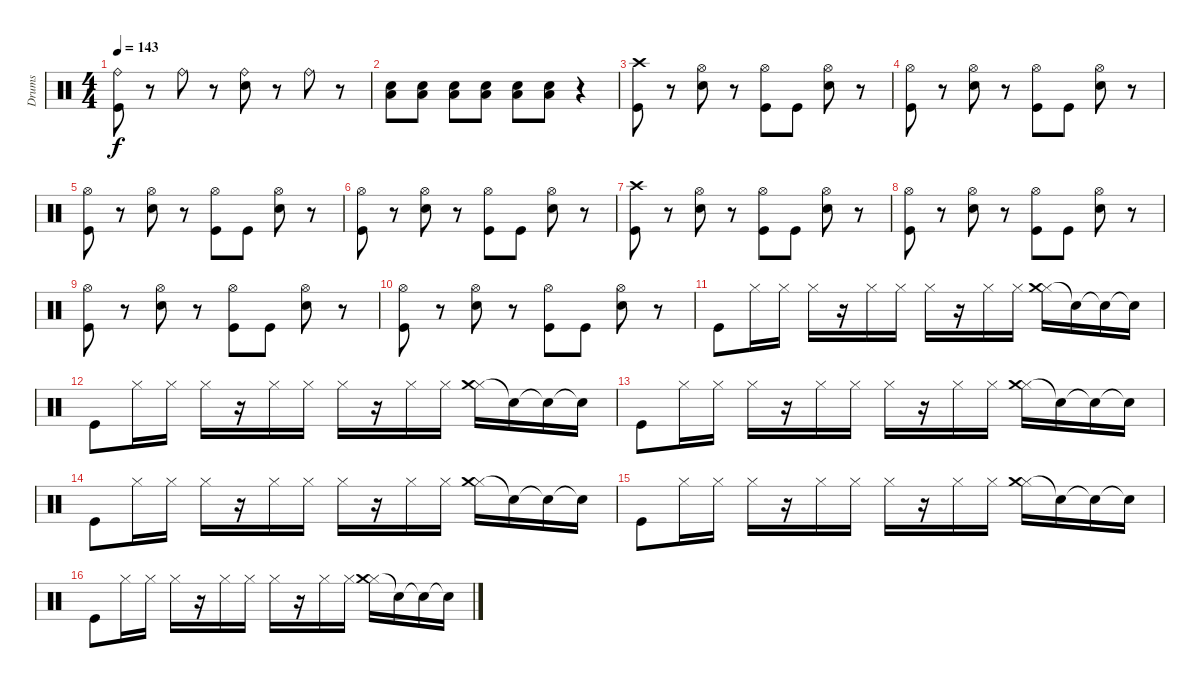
\track ("Drums" "Drums") {instrument percussion}
\staff {score}
\articulation defaults
\ts (4 4)
\tempo 143
\clef neutral
\ks c
("Ride (bell)" "Kick (hit)").8{dy f} r.8 "Ride (bell)".8 r.8 ("Ride (bell)" "Electric Snare (hit)").8 r.8 "Ride (bell)".8 r.8 |
("Electric Snare (hit)" "Low Floor Tom (hit)").8 ("Electric Snare (hit)" "Low Floor Tom (hit)").8 ("Electric Snare (hit)" "Low Floor Tom (hit)").8 ("Electric Snare (hit)" "Low Floor Tom (hit)").8 ("Electric Snare (hit)" "Low Floor Tom (hit)").8 ("Electric Snare (hit)" "Low Floor Tom (hit)").8 r.4 |
("Crash high (hit)" "Kick (hit)").8 r.8 ("Hi-Hat (open)" "Electric Snare (hit)").8 r.8 ("Hi-Hat (open)" "Kick (hit)").8 "Kick (hit)".8 ("Hi-Hat (open)" "Electric Snare (hit)").8 r.8 |
("Hi-Hat (open)" "Kick (hit)").8 r.8 ("Hi-Hat (open)" "Electric Snare (hit)").8 r.8 ("Hi-Hat (open)" "Kick (hit)").8 "Kick (hit)".8 ("Hi-Hat (open)" "Electric Snare (hit)").8 r.8 |
("Hi-Hat (open)" "Kick (hit)").8 r.8 ("Hi-Hat (open)" "Electric Snare (hit)").8 r.8 ("Hi-Hat (open)" "Kick (hit)").8 "Kick (hit)".8 ("Hi-Hat (open)" "Electric Snare (hit)").8 r.8 |
("Hi-Hat (open)" "Kick (hit)").8 r.8 ("Hi-Hat (open)" "Electric Snare (hit)").8 r.8 ("Hi-Hat (open)" "Kick (hit)").8 "Kick (hit)".8 ("Hi-Hat (open)" "Electric Snare (hit)").8 r.8 |
("Crash high (hit)" "Kick (hit)").8 r.8 ("Hi-Hat (open)" "Electric Snare (hit)").8 r.8 ("Hi-Hat (open)" "Kick (hit)").8 "Kick (hit)".8 ("Hi-Hat (open)" "Electric Snare (hit)").8 r.8 |
("Hi-Hat (open)" "Kick (hit)").8 r.8 ("Hi-Hat (open)" "Electric Snare (hit)").8 r.8 ("Hi-Hat (open)" "Kick (hit)").8 "Kick (hit)".8 ("Hi-Hat (open)" "Electric Snare (hit)").8 r.8 |
("Hi-Hat (open)" "Kick (hit)").8 r.8 ("Hi-Hat (open)" "Electric Snare (hit)").8 r.8 ("Hi-Hat (open)" "Kick (hit)").8 "Kick (hit)".8 ("Hi-Hat (open)" "Electric Snare (hit)").8 r.8 |
("Hi-Hat (open)" "Kick (hit)").8 r.8 ("Hi-Hat (open)" "Electric Snare (hit)").8 r.8 ("Hi-Hat (open)" "Kick (hit)").8 "Kick (hit)".8 ("Hi-Hat (open)" "Electric Snare (hit)").8 r.8 |
"Kick (hit)".8 "Hi-Hat (closed)".16 "Hi-Hat (closed)".16 "Hi-Hat (closed)".16 r.16 "Hi-Hat (closed)".16 "Hi-Hat (closed)".16 "Hi-Hat (closed)".16 r.16 "Hi-Hat (closed)".16 "Hi-Hat (closed)".16 ("Hi-Hat (closed)" "Crash medium (hit)").16 "Snare (hit)"{t}.16 "Snare (hit)"{t}.16 "Snare (hit)"{t}.16 |
"Kick (hit)".8 "Hi-Hat (closed)".16 "Hi-Hat (closed)".16 "Hi-Hat (closed)".16 r.16 "Hi-Hat (closed)".16 "Hi-Hat (closed)".16 "Hi-Hat (closed)".16 r.16 "Hi-Hat (closed)".16 "Hi-Hat (closed)".16 ("Hi-Hat (closed)" "Crash medium (hit)").16 "Snare (hit)"{t}.16 "Snare (hit)"{t}.16 "Snare (hit)"{t}.16 |
"Kick (hit)".8 "Hi-Hat (closed)".16 "Hi-Hat (closed)".16 "Hi-Hat (closed)".16 r.16 "Hi-Hat (closed)".16 "Hi-Hat (closed)".16 "Hi-Hat (closed)".16 r.16 "Hi-Hat (closed)".16 "Hi-Hat (closed)".16 ("Hi-Hat (closed)" "Crash medium (hit)").16 "Snare (hit)"{t}.16 "Snare (hit)"{t}.16 "Snare (hit)"{t}.16 |
"Kick (hit)".8 "Hi-Hat (closed)".16 "Hi-Hat (closed)".16 "Hi-Hat (closed)".16 r.16 "Hi-Hat (closed)".16 "Hi-Hat (closed)".16 "Hi-Hat (closed)".16 r.16 "Hi-Hat (closed)".16 "Hi-Hat (closed)".16 ("Hi-Hat (closed)" "Crash medium (hit)").16 "Snare (hit)"{t}.16 "Snare (hit)"{t}.16 "Snare (hit)"{t}.16 |
"Kick (hit)".8 "Hi-Hat (closed)".16 "Hi-Hat (closed)".16 "Hi-Hat (closed)".16 r.16 "Hi-Hat (closed)".16 "Hi-Hat (closed)".16 "Hi-Hat (closed)".16 r.16 "Hi-Hat (closed)".16 "Hi-Hat (closed)".16 ("Hi-Hat (closed)" "Crash medium (hit)").16 "Snare (hit)"{t}.16 "Snare (hit)"{t}.16 "Snare (hit)"{t}.16 |
"Kick (hit)".8 "Hi-Hat (closed)".16 "Hi-Hat (closed)".16 "Hi-Hat (closed)".16 r.16 "Hi-Hat (closed)".16 "Hi-Hat (closed)".16 "Hi-Hat (closed)".16 r.16 "Hi-Hat (closed)".16 "Hi-Hat (closed)".16 ("Hi-Hat (closed)" "Crash medium (hit)").16 "Snare (hit)"{t}.16 "Snare (hit)"{t}.16 "Snare (hit)"{t}.16
